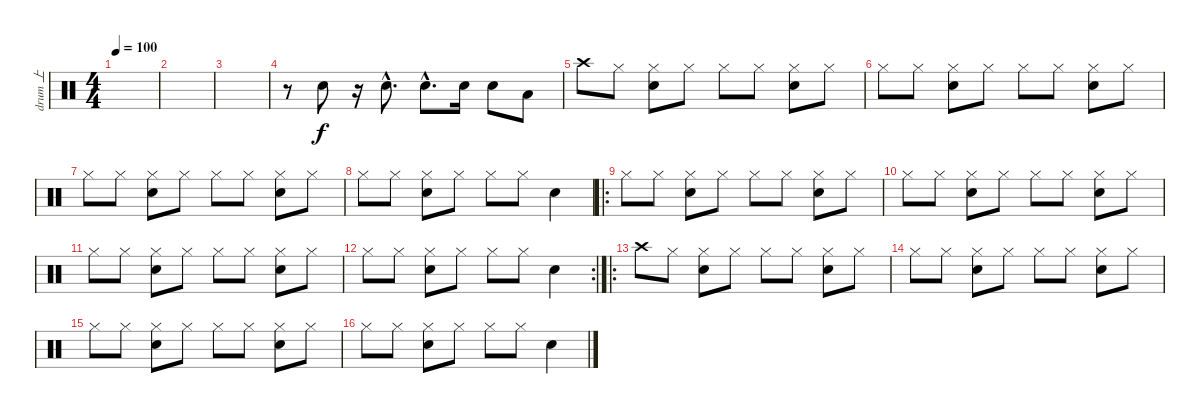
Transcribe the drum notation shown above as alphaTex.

\track ("drum 上" "drum 上") {instrument percussion}
\staff {score}
\articulation defaults
\ts (4 4)
\tempo 100
\clef neutral
\ks c
|
|
|
r.8 "Snare (hit) 2".8 r.16 "Snare (hit) 2"{hac}.8{d} "Snare (hit) 2"{hac}.8{d} "Snare (hit) 2".16 "Snare (hit) 2".8 "Low Floor Tom (hit)".8 |
"Crash high (hit)".8 "Hi-Hat (closed)".8 ("Hi-Hat (closed)" "Snare (hit) 2").8 "Hi-Hat (closed)".8 "Hi-Hat (closed)".8 "Hi-Hat (closed)".8 ("Hi-Hat (closed)" "Snare (hit) 2").8 "Hi-Hat (closed)".8 |
"Hi-Hat (closed)".8 "Hi-Hat (closed)".8 ("Hi-Hat (closed)" "Snare (hit) 2").8 "Hi-Hat (closed)".8 "Hi-Hat (closed)".8 "Hi-Hat (closed)".8 ("Hi-Hat (closed)" "Snare (hit) 2").8 "Hi-Hat (closed)".8 |
"Hi-Hat (closed)".8 "Hi-Hat (closed)".8 ("Hi-Hat (closed)" "Snare (hit) 2").8 "Hi-Hat (closed)".8 "Hi-Hat (closed)".8 "Hi-Hat (closed)".8 ("Hi-Hat (closed)" "Snare (hit) 2").8 "Hi-Hat (closed)".8 |
"Hi-Hat (closed)".8 "Hi-Hat (closed)".8 ("Hi-Hat (closed)" "Snare (hit) 2").8 "Hi-Hat (closed)".8 "Hi-Hat (closed)".8 "Hi-Hat (closed)".8 "Snare (hit) 2".4 |
\ro "Hi-Hat (closed)".8 "Hi-Hat (closed)".8
("Hi-Hat (closed)" "Snare (hit) 2").8 "Hi-Hat (closed)".8 "Hi-Hat (closed)".8 "Hi-Hat (closed)".8 ("Hi-Hat (closed)" "Snare (hit) 2").8 "Hi-Hat (closed)".8 |
"Hi-Hat (closed)".8 "Hi-Hat (closed)".8 ("Hi-Hat (closed)" "Snare (hit) 2").8 "Hi-Hat (closed)".8 "Hi-Hat (closed)".8 "Hi-Hat (closed)".8 ("Hi-Hat (closed)" "Snare (hit) 2").8 "Hi-Hat (closed)".8 |
"Hi-Hat (closed)".8 "Hi-Hat (closed)".8 ("Hi-Hat (closed)" "Snare (hit) 2").8 "Hi-Hat (closed)".8 "Hi-Hat (closed)".8 "Hi-Hat (closed)".8 ("Hi-Hat (closed)" "Snare (hit) 2").8 "Hi-Hat (closed)".8 |
\rc 2 "Hi-Hat (closed)".8 "Hi-Hat (closed)".8
("Hi-Hat (closed)" "Snare (hit) 2").8 "Hi-Hat (closed)".8 "Hi-Hat (closed)".8 "Hi-Hat (closed)".8 "Snare (hit) 2".4 |
\ro "Crash high (hit)".8 "Hi-Hat (closed)".8
("Hi-Hat (closed)" "Snare (hit) 2").8 "Hi-Hat (closed)".8 "Hi-Hat (closed)".8 "Hi-Hat (closed)".8 ("Hi-Hat (closed)" "Snare (hit) 2").8 "Hi-Hat (closed)".8 |
"Hi-Hat (closed)".8 "Hi-Hat (closed)".8 ("Hi-Hat (closed)" "Snare (hit) 2").8 "Hi-Hat (closed)".8 "Hi-Hat (closed)".8 "Hi-Hat (closed)".8 ("Hi-Hat (closed)" "Snare (hit) 2").8 "Hi-Hat (closed)".8 |
"Hi-Hat (closed)".8 "Hi-Hat (closed)".8 ("Hi-Hat (closed)" "Snare (hit) 2").8 "Hi-Hat (closed)".8 "Hi-Hat (closed)".8 "Hi-Hat (closed)".8 ("Hi-Hat (closed)" "Snare (hit) 2").8 "Hi-Hat (closed)".8 |
"Hi-Hat (closed)".8 "Hi-Hat (closed)".8 ("Hi-Hat (closed)" "Snare (hit) 2").8 "Hi-Hat (closed)".8 "Hi-Hat (closed)".8 "Hi-Hat (closed)".8 "Snare (hit) 2".4
